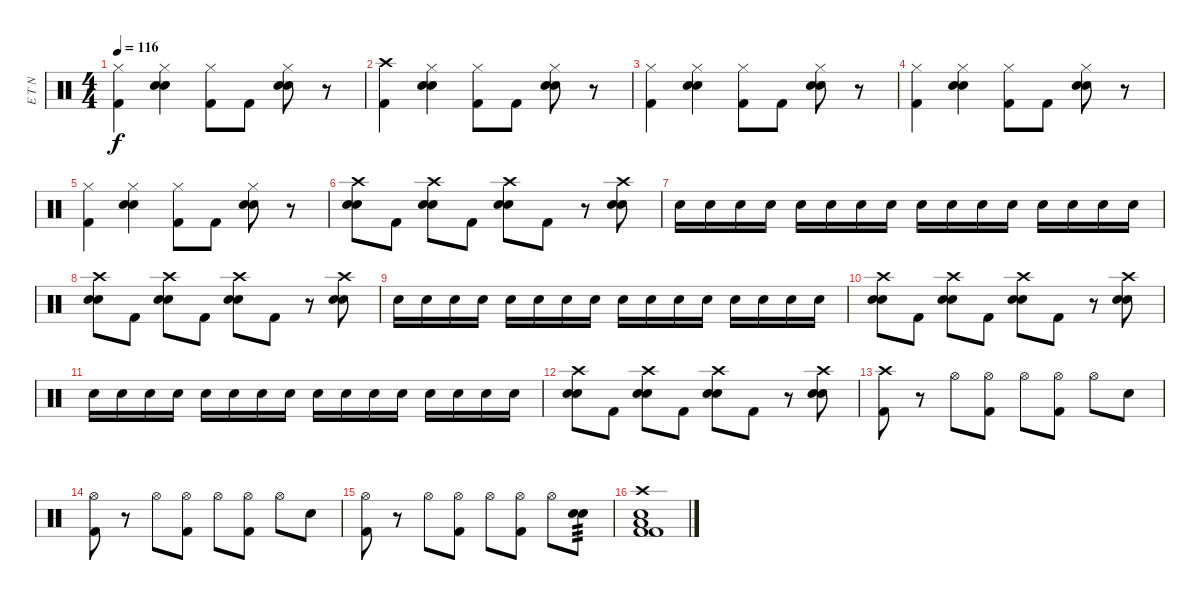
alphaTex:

\track ("E T N" "E T N") {instrument percussion}
\staff {score}
\articulation defaults
\ts (4 4)
\tempo 116
\clef neutral
\ks c
("Hi-Hat (closed)" "Kick (hit) 2").4{dy f} ("Hi-Hat (closed)" "Electric Snare (hit)" "Electric Snare (hit)").4 ("Hi-Hat (closed)" "Kick (hit) 2").8 "Kick (hit) 2".8 ("Hi-Hat (closed)" "Electric Snare (hit)" "Electric Snare (hit)").8 r.8 |
("Crash high (hit)" "Kick (hit) 2").4 ("Hi-Hat (closed)" "Electric Snare (hit)" "Electric Snare (hit)").4 ("Hi-Hat (closed)" "Kick (hit) 2").8 "Kick (hit) 2".8 ("Hi-Hat (closed)" "Electric Snare (hit)" "Electric Snare (hit)").8 r.8 |
("Hi-Hat (closed)" "Kick (hit) 2").4 ("Hi-Hat (closed)" "Electric Snare (hit)" "Electric Snare (hit)").4 ("Hi-Hat (closed)" "Kick (hit) 2").8 "Kick (hit) 2".8 ("Hi-Hat (closed)" "Electric Snare (hit)" "Electric Snare (hit)").8 r.8 |
("Hi-Hat (closed)" "Kick (hit) 2").4 ("Hi-Hat (closed)" "Electric Snare (hit)" "Electric Snare (hit)").4 ("Hi-Hat (closed)" "Kick (hit) 2").8 "Kick (hit) 2".8 ("Hi-Hat (closed)" "Electric Snare (hit)" "Electric Snare (hit)").8 r.8 |
("Hi-Hat (closed)" "Kick (hit) 2").4 ("Hi-Hat (closed)" "Electric Snare (hit)" "Electric Snare (hit)").4 ("Hi-Hat (closed)" "Kick (hit) 2").8 "Kick (hit) 2".8 ("Hi-Hat (closed)" "Electric Snare (hit)" "Electric Snare (hit)").8 r.8 |
("Crash high (hit)" "Electric Snare (hit)" "Electric Snare (hit)").8 "Kick (hit) 2".8 ("Crash high (hit)" "Electric Snare (hit)" "Electric Snare (hit)").8 "Kick (hit) 2".8 ("Crash high (hit)" "Electric Snare (hit)" "Electric Snare (hit)").8 "Kick (hit) 2".8 r.8 ("Crash high (hit)" "Electric Snare (hit)" "Electric Snare (hit)").8 |
"Electric Snare (hit)".16 "Electric Snare (hit)".16 "Electric Snare (hit)".16 "Electric Snare (hit)".16 "Electric Snare (hit)".16 "Electric Snare (hit)".16 "Electric Snare (hit)".16 "Electric Snare (hit)".16 "Electric Snare (hit)".16 "Electric Snare (hit)".16 "Electric Snare (hit)".16 "Electric Snare (hit)".16 "Electric Snare (hit)".16 "Electric Snare (hit)".16 "Electric Snare (hit)".16 "Electric Snare (hit)".16 |
("Crash high (hit)" "Electric Snare (hit)" "Electric Snare (hit)").8 "Kick (hit) 2".8 ("Crash high (hit)" "Electric Snare (hit)" "Electric Snare (hit)").8 "Kick (hit) 2".8 ("Crash high (hit)" "Electric Snare (hit)" "Electric Snare (hit)").8 "Kick (hit) 2".8 r.8 ("Crash high (hit)" "Electric Snare (hit)" "Electric Snare (hit)").8 |
"Electric Snare (hit)".16 "Electric Snare (hit)".16 "Electric Snare (hit)".16 "Electric Snare (hit)".16 "Electric Snare (hit)".16 "Electric Snare (hit)".16 "Electric Snare (hit)".16 "Electric Snare (hit)".16 "Electric Snare (hit)".16 "Electric Snare (hit)".16 "Electric Snare (hit)".16 "Electric Snare (hit)".16 "Electric Snare (hit)".16 "Electric Snare (hit)".16 "Electric Snare (hit)".16 "Electric Snare (hit)".16 |
("Crash high (hit)" "Electric Snare (hit)" "Electric Snare (hit)").8 "Kick (hit) 2".8 ("Crash high (hit)" "Electric Snare (hit)" "Electric Snare (hit)").8 "Kick (hit) 2".8 ("Crash high (hit)" "Electric Snare (hit)" "Electric Snare (hit)").8 "Kick (hit) 2".8 r.8 ("Crash high (hit)" "Electric Snare (hit)" "Electric Snare (hit)").8 |
"Electric Snare (hit)".16 "Electric Snare (hit)".16 "Electric Snare (hit)".16 "Electric Snare (hit)".16 "Electric Snare (hit)".16 "Electric Snare (hit)".16 "Electric Snare (hit)".16 "Electric Snare (hit)".16 "Electric Snare (hit)".16 "Electric Snare (hit)".16 "Electric Snare (hit)".16 "Electric Snare (hit)".16 "Electric Snare (hit)".16 "Electric Snare (hit)".16 "Electric Snare (hit)".16 "Electric Snare (hit)".16 |
("Crash high (hit)" "Electric Snare (hit)" "Electric Snare (hit)").8 "Kick (hit) 2".8 ("Crash high (hit)" "Electric Snare (hit)" "Electric Snare (hit)").8 "Kick (hit) 2".8 ("Crash high (hit)" "Electric Snare (hit)" "Electric Snare (hit)").8 "Kick (hit) 2".8 r.8 ("Crash high (hit)" "Electric Snare (hit)" "Electric Snare (hit)").8 |
("Crash high (hit)" "Kick (hit) 2").8 r.8 "Hi-Hat (open)".8 ("Hi-Hat (open)" "Kick (hit) 2").8 "Hi-Hat (open)".8 ("Hi-Hat (open)" "Kick (hit) 2").8 "Hi-Hat (open)".8 "Electric Snare (hit)".8 |
("Hi-Hat (open)" "Kick (hit) 2").8 r.8 "Hi-Hat (open)".8 ("Hi-Hat (open)" "Kick (hit) 2").8 "Hi-Hat (open)".8 ("Hi-Hat (open)" "Kick (hit) 2").8 "Hi-Hat (open)".8 "Electric Snare (hit)".8 |
("Hi-Hat (open)" "Kick (hit) 2").8 r.8 "Hi-Hat (open)".8 ("Hi-Hat (open)" "Kick (hit) 2").8 "Hi-Hat (open)".8 ("Hi-Hat (open)" "Kick (hit) 2").8 "Hi-Hat (open)".8 ("Electric Snare (hit)" "Electric Snare (hit)").8{tp 3} |
("Crash high (hit)" "Electric Snare (hit)" "Low Floor Tom (hit)" "Kick (hit) 2" "Kick (hit) 2").1
